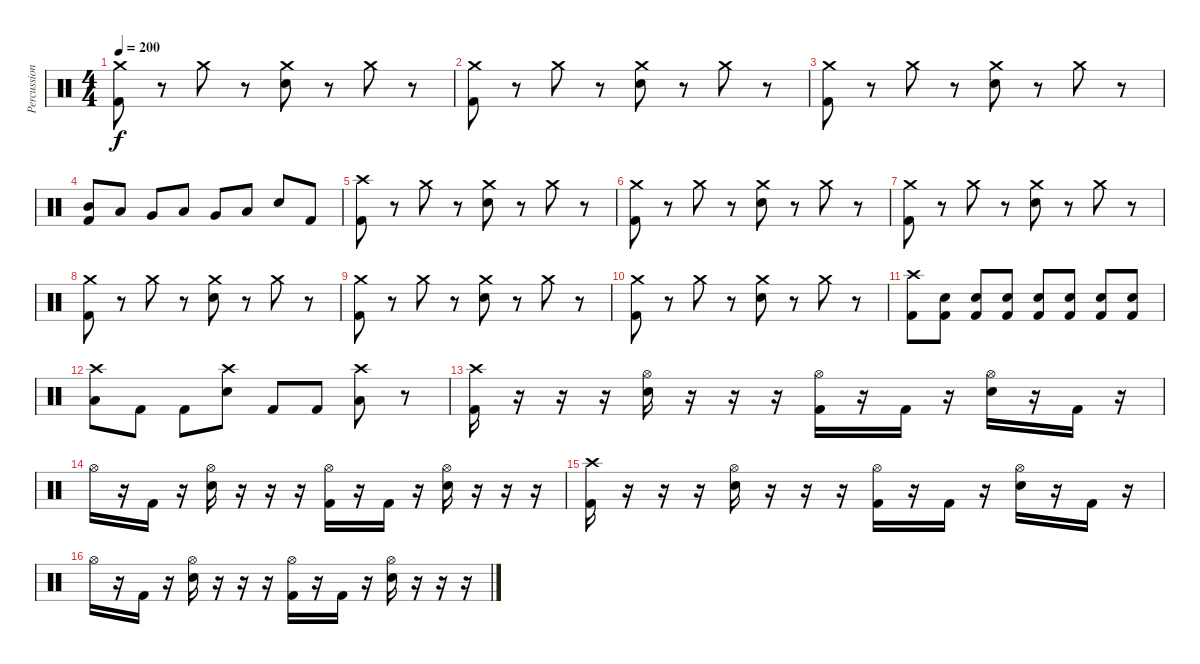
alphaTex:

\track ("Percussion" "Percussion") {instrument percussion}
\staff {score}
\articulation defaults
\ts (4 4)
\tempo 200
\clef neutral
\ks c
("Crash medium (hit)" "Kick (hit) 2").8{dy f} r.8 "Crash medium (hit)".8 r.8 ("Crash medium (hit)" "Snare (hit) 2").8 r.8 "Crash medium (hit)".8 r.8 |
("Crash medium (hit)" "Kick (hit) 2").8 r.8 "Crash medium (hit)".8 r.8 ("Crash medium (hit)" "Snare (hit) 2").8 r.8 "Crash medium (hit)".8 r.8 |
("Crash medium (hit)" "Kick (hit) 2").8 r.8 "Crash medium (hit)".8 r.8 ("Crash medium (hit)" "Snare (hit) 2").8 r.8 "Crash medium (hit)".8 r.8 |
("Mid Tom (hit)" "Kick (hit) 2").8 "Low Tom (hit)".8 "Very Low Tom (hit)".8 "Low Tom (hit)".8 "Very Low Tom (hit)".8 "Low Floor Tom (hit)".8 "Snare (hit) 2".8 "Kick (hit) 2".8 |
("Crash high (hit)" "Kick (hit) 2").8 r.8 "Crash medium (hit)".8 r.8 ("Crash medium (hit)" "Snare (hit) 2").8 r.8 "Crash medium (hit)".8 r.8 |
("Crash medium (hit)" "Kick (hit) 2").8 r.8 "Crash medium (hit)".8 r.8 ("Crash medium (hit)" "Snare (hit) 2").8 r.8 "Crash medium (hit)".8 r.8 |
("Crash medium (hit)" "Kick (hit) 2").8 r.8 "Crash medium (hit)".8 r.8 ("Crash medium (hit)" "Snare (hit) 2").8 r.8 "Crash medium (hit)".8 r.8 |
("Crash medium (hit)" "Kick (hit) 2").8 r.8 "Crash medium (hit)".8 r.8 ("Crash medium (hit)" "Snare (hit) 2").8 r.8 "Crash medium (hit)".8 r.8 |
("Crash medium (hit)" "Kick (hit) 2").8 r.8 "Crash medium (hit)".8 r.8 ("Crash medium (hit)" "Snare (hit) 2").8 r.8 "Crash medium (hit)".8 r.8 |
("Crash medium (hit)" "Kick (hit) 2").8 r.8 "Crash medium (hit)".8 r.8 ("Crash medium (hit)" "Snare (hit) 2").8 r.8 "Crash medium (hit)".8 r.8 |
("Crash high (hit)" "Kick (hit) 2").8 ("Snare (hit) 2" "Kick (hit) 2").8 ("Snare (hit) 2" "Kick (hit) 2").8 ("Snare (hit) 2" "Kick (hit) 2").8 ("Snare (hit) 2" "Kick (hit) 2").8 ("Snare (hit) 2" "Kick (hit) 2").8 ("Snare (hit) 2" "Kick (hit) 2").8 ("Snare (hit) 2" "Kick (hit) 2").8 |
("Crash high (hit)" "Low Floor Tom (hit)").8 "Kick (hit) 2".8 "Kick (hit) 2".8 ("Crash high (hit)" "Snare (hit) 2").8 "Kick (hit) 2".8 "Kick (hit) 2".8 ("Crash high (hit)" "Low Floor Tom (hit)").8 r.8 |
("Crash high (hit)" "Kick (hit) 2").16 r.16 r.16 r.16 ("Hi-Hat (open)" "Snare (hit) 2").16 r.16 r.16 r.16 ("Hi-Hat (open)" "Kick (hit) 2").16 r.16 "Kick (hit) 2".16 r.16 ("Hi-Hat (open)" "Snare (hit) 2").16 r.16 "Kick (hit) 2".16 r.16 |
"Hi-Hat (open)".16 r.16 "Kick (hit) 2".16 r.16 ("Hi-Hat (open)" "Snare (hit) 2").16 r.16 r.16 r.16 ("Hi-Hat (open)" "Kick (hit) 2").16 r.16 "Kick (hit) 2".16 r.16 ("Hi-Hat (open)" "Snare (hit) 2").16 r.16 r.16 r.16 |
("Crash high (hit)" "Kick (hit) 2").16 r.16 r.16 r.16 ("Hi-Hat (open)" "Snare (hit) 2").16 r.16 r.16 r.16 ("Hi-Hat (open)" "Kick (hit) 2").16 r.16 "Kick (hit) 2".16 r.16 ("Hi-Hat (open)" "Snare (hit) 2").16 r.16 "Kick (hit) 2".16 r.16 |
"Hi-Hat (open)".16 r.16 "Kick (hit) 2".16 r.16 ("Hi-Hat (open)" "Snare (hit) 2").16 r.16 r.16 r.16 ("Hi-Hat (open)" "Kick (hit) 2").16 r.16 "Kick (hit) 2".16 r.16 ("Hi-Hat (open)" "Snare (hit) 2").16 r.16 r.16 r.16
